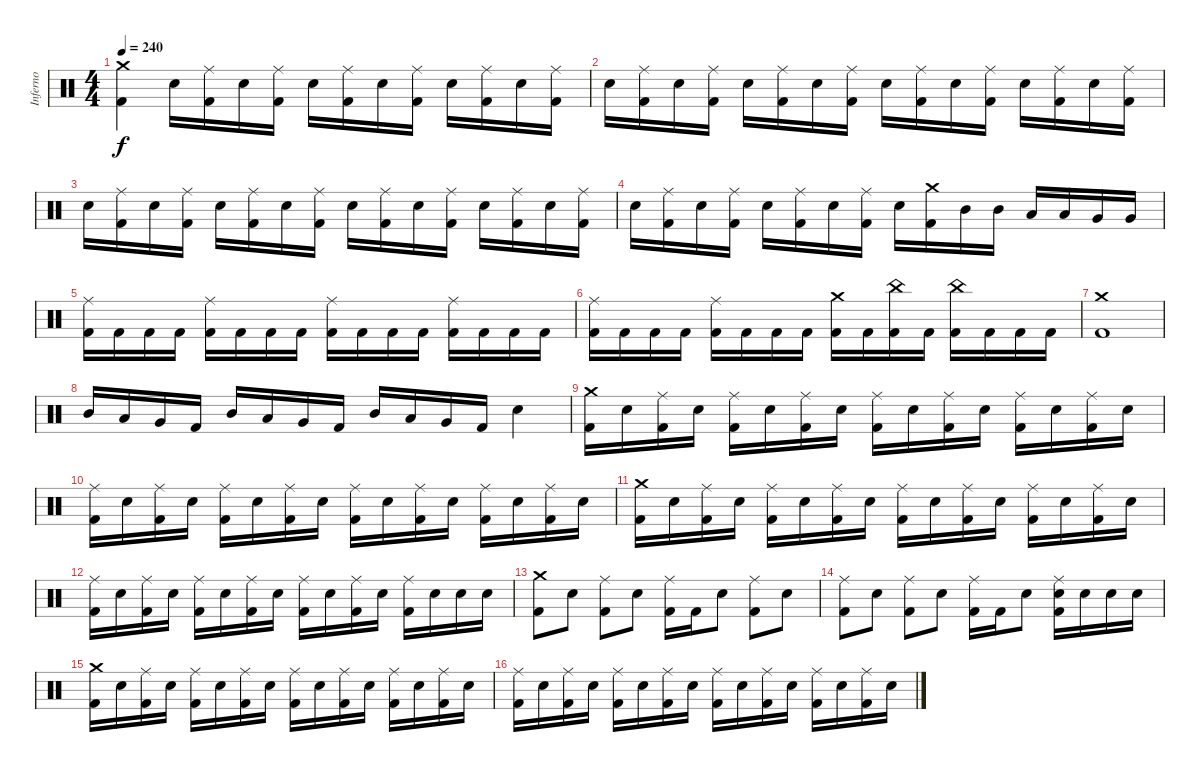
\track ("Inferno" "Inferno") {instrument percussion}
\staff {score}
\articulation defaults
\ts (4 4)
\tempo 240
\clef neutral
\ks c
("Crash medium (hit)" "Kick (hit) 2").4{dy f} "Snare (hit) 2".16 ("Ride (middle)" "Kick (hit) 2").16 "Snare (hit) 2".16 ("Ride (middle)" "Kick (hit) 2").16 "Snare (hit) 2".16 ("Ride (middle)" "Kick (hit) 2").16 "Snare (hit) 2".16 ("Ride (middle)" "Kick (hit) 2").16 "Snare (hit) 2".16 ("Ride (middle)" "Kick (hit) 2").16 "Snare (hit) 2".16 ("Ride (middle)" "Kick (hit) 2").16 |
"Snare (hit) 2".16 ("Ride (middle)" "Kick (hit) 2").16 "Snare (hit) 2".16 ("Ride (middle)" "Kick (hit) 2").16 "Snare (hit) 2".16 ("Ride (middle)" "Kick (hit) 2").16 "Snare (hit) 2".16 ("Ride (middle)" "Kick (hit) 2").16 "Snare (hit) 2".16 ("Ride (middle)" "Kick (hit) 2").16 "Snare (hit) 2".16 ("Ride (middle)" "Kick (hit) 2").16 "Snare (hit) 2".16 ("Ride (middle)" "Kick (hit) 2").16 "Snare (hit) 2".16 ("Ride (middle)" "Kick (hit) 2").16 |
"Snare (hit) 2".16 ("Ride (middle)" "Kick (hit) 2").16 "Snare (hit) 2".16 ("Ride (middle)" "Kick (hit) 2").16 "Snare (hit) 2".16 ("Ride (middle)" "Kick (hit) 2").16 "Snare (hit) 2".16 ("Ride (middle)" "Kick (hit) 2").16 "Snare (hit) 2".16 ("Ride (middle)" "Kick (hit) 2").16 "Snare (hit) 2".16 ("Ride (middle)" "Kick (hit) 2").16 "Snare (hit) 2".16 ("Ride (middle)" "Kick (hit) 2").16 "Snare (hit) 2".16 ("Ride (middle)" "Kick (hit) 2").16 |
"Snare (hit) 2".16 ("Ride (middle)" "Kick (hit) 2").16 "Snare (hit) 2".16 ("Ride (middle)" "Kick (hit) 2").16 "Snare (hit) 2".16 ("Ride (middle)" "Kick (hit) 2").16 "Snare (hit) 2".16 ("Ride (middle)" "Kick (hit) 2").16 "Snare (hit) 2".16 ("Crash medium (hit)" "Kick (hit) 2").16 "Mid Tom (hit)".16 "Mid Tom (hit)".16 "Low Tom (hit)".16 "Low Tom (hit)".16 "Very Low Tom (hit)".16 "Very Low Tom (hit)".16 |
("Ride (middle)" "Kick (hit) 2").16 "Kick (hit) 2".16 "Kick (hit) 2".16 "Kick (hit) 2".16 ("Ride (middle)" "Kick (hit) 2").16 "Kick (hit) 2".16 "Kick (hit) 2".16 "Kick (hit) 2".16 ("Ride (middle)" "Kick (hit) 2").16 "Kick (hit) 2".16 "Kick (hit) 2".16 "Kick (hit) 2".16 ("Ride (middle)" "Kick (hit) 2").16 "Kick (hit) 2".16 "Kick (hit) 2".16 "Kick (hit) 2".16 |
("Ride (middle)" "Kick (hit) 2").16 "Kick (hit) 2".16 "Kick (hit) 2".16 "Kick (hit) 2".16 ("Ride (middle)" "Kick (hit) 2").16 "Kick (hit) 2".16 "Kick (hit) 2".16 "Kick (hit) 2".16 ("Crash medium (hit)" "Kick (hit) 2").16 "Kick (hit) 2".16 ("China (hit)" "Kick (hit) 2").16 "Kick (hit) 2".16 ("China (hit)" "Kick (hit) 2").16 "Kick (hit) 2".16 "Kick (hit) 2".16 "Kick (hit) 2".16 |
("Crash medium (hit)" "Kick (hit) 2").1 |
"Mid Tom (hit)".16 "Low Tom (hit)".16 "Very Low Tom (hit)".16 "Kick (hit) 2".16 "Mid Tom (hit)".16 "Low Tom (hit)".16 "Very Low Tom (hit)".16 "Kick (hit) 2".16 "Mid Tom (hit)".16 "Low Tom (hit)".16 "Very Low Tom (hit)".16 "Kick (hit) 2".16 "Snare (hit) 2".4 |
("Crash medium (hit)" "Kick (hit) 2").16 "Snare (hit) 2".16 ("Ride (middle)" "Kick (hit) 2").16 "Snare (hit) 2".16 ("Ride (middle)" "Kick (hit) 2").16 "Snare (hit) 2".16 ("Ride (middle)" "Kick (hit) 2").16 "Snare (hit) 2".16 ("Ride (middle)" "Kick (hit) 2").16 "Snare (hit) 2".16 ("Ride (middle)" "Kick (hit) 2").16 "Snare (hit) 2".16 ("Ride (middle)" "Kick (hit) 2").16 "Snare (hit) 2".16 ("Ride (middle)" "Kick (hit) 2").16 "Snare (hit) 2".16 |
("Ride (middle)" "Kick (hit) 2").16 "Snare (hit) 2".16 ("Ride (middle)" "Kick (hit) 2").16 "Snare (hit) 2".16 ("Ride (middle)" "Kick (hit) 2").16 "Snare (hit) 2".16 ("Ride (middle)" "Kick (hit) 2").16 "Snare (hit) 2".16 ("Ride (middle)" "Kick (hit) 2").16 "Snare (hit) 2".16 ("Ride (middle)" "Kick (hit) 2").16 "Snare (hit) 2".16 ("Ride (middle)" "Kick (hit) 2").16 "Snare (hit) 2".16 ("Ride (middle)" "Kick (hit) 2").16 "Snare (hit) 2".16 |
("Crash medium (hit)" "Kick (hit) 2").16 "Snare (hit) 2".16 ("Ride (middle)" "Kick (hit) 2").16 "Snare (hit) 2".16 ("Ride (middle)" "Kick (hit) 2").16 "Snare (hit) 2".16 ("Ride (middle)" "Kick (hit) 2").16 "Snare (hit) 2".16 ("Ride (middle)" "Kick (hit) 2").16 "Snare (hit) 2".16 ("Ride (middle)" "Kick (hit) 2").16 "Snare (hit) 2".16 ("Ride (middle)" "Kick (hit) 2").16 "Snare (hit) 2".16 ("Ride (middle)" "Kick (hit) 2").16 "Snare (hit) 2".16 |
("Ride (middle)" "Kick (hit) 2").16 "Snare (hit) 2".16 ("Ride (middle)" "Kick (hit) 2").16 "Snare (hit) 2".16 ("Ride (middle)" "Kick (hit) 2").16 "Snare (hit) 2".16 ("Ride (middle)" "Kick (hit) 2").16 "Snare (hit) 2".16 ("Ride (middle)" "Kick (hit) 2").16 "Snare (hit) 2".16 ("Ride (middle)" "Kick (hit) 2").16 "Snare (hit) 2".16 ("Ride (middle)" "Kick (hit) 2").16 "Snare (hit) 2".16 "Snare (hit) 2".16 "Snare (hit) 2".16 |
("Crash medium (hit)" "Kick (hit) 2").8 "Snare (hit) 2".8 ("Ride (middle)" "Kick (hit) 2").8 "Snare (hit) 2".8 ("Ride (middle)" "Kick (hit) 2").16 "Kick (hit) 2".16 "Snare (hit) 2".8 ("Ride (middle)" "Kick (hit) 2").8 "Snare (hit) 2".8 |
("Ride (middle)" "Kick (hit) 2").8 "Snare (hit) 2".8 ("Ride (middle)" "Kick (hit) 2").8 "Snare (hit) 2".8 ("Ride (middle)" "Kick (hit) 2").16 "Kick (hit) 2".16 "Snare (hit) 2".8 ("Ride (middle)" "Snare (hit) 2" "Kick (hit) 2").16 "Snare (hit) 2".16 "Snare (hit) 2".16 "Snare (hit) 2".16 |
("Crash medium (hit)" "Kick (hit) 2").16 "Snare (hit) 2".16 ("Ride (middle)" "Kick (hit) 2").16 "Snare (hit) 2".16 ("Ride (middle)" "Kick (hit) 2").16 "Snare (hit) 2".16 ("Ride (middle)" "Kick (hit) 2").16 "Snare (hit) 2".16 ("Ride (middle)" "Kick (hit) 2").16 "Snare (hit) 2".16 ("Ride (middle)" "Kick (hit) 2").16 "Snare (hit) 2".16 ("Ride (middle)" "Kick (hit) 2").16 "Snare (hit) 2".16 ("Ride (middle)" "Kick (hit) 2").16 "Snare (hit) 2".16 |
("Ride (middle)" "Kick (hit) 2").16 "Snare (hit) 2".16 ("Ride (middle)" "Kick (hit) 2").16 "Snare (hit) 2".16 ("Ride (middle)" "Kick (hit) 2").16 "Snare (hit) 2".16 ("Ride (middle)" "Kick (hit) 2").16 "Snare (hit) 2".16 ("Ride (middle)" "Kick (hit) 2").16 "Snare (hit) 2".16 ("Ride (middle)" "Kick (hit) 2").16 "Snare (hit) 2".16 ("Ride (middle)" "Kick (hit) 2").16 "Snare (hit) 2".16 ("Ride (middle)" "Kick (hit) 2").16 "Snare (hit) 2".16
